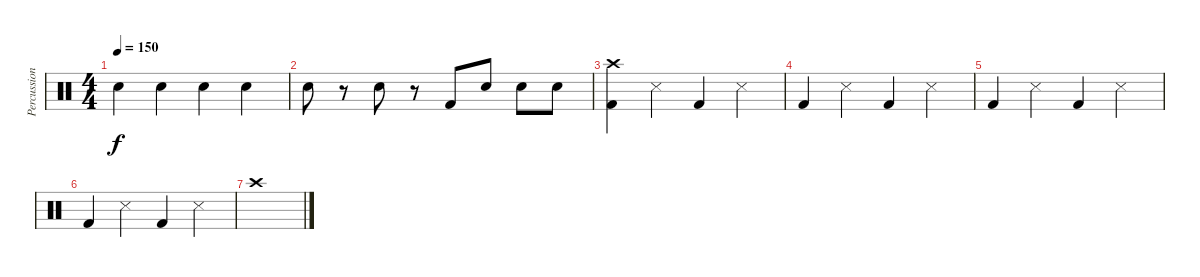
\track ("Percussion" "Percussion") {instrument percussion}
\staff {score}
\articulation defaults
\ts (4 4)
\tempo 150
\clef neutral
\ks c "Electric Snare (hit)".4{dy f} "Electric Snare (hit)".4 "Electric Snare (hit)".4 "Electric Snare (hit)".4
|
"Electric Snare (hit)".8 r.8 "Electric Snare (hit)".8 r.8 "Kick (hit) 2".8 "Electric Snare (hit)".8 "Electric Snare (hit)".8 "Electric Snare (hit)".8 |
("Crash high (hit)" "Kick (hit) 2").4 "Snare (side stick) 3".4 "Kick (hit) 2".4 "Snare (side stick) 3".4 |
"Kick (hit) 2".4 "Snare (side stick) 3".4 "Kick (hit) 2".4 "Snare (side stick) 3".4 |
"Kick (hit) 2".4 "Snare (side stick) 3".4 "Kick (hit) 2".4 "Snare (side stick) 3".4 |
"Kick (hit) 2".4 "Snare (side stick) 3".4 "Kick (hit) 2".4 "Snare (side stick) 3".4 |
"Crash high (hit)".1
